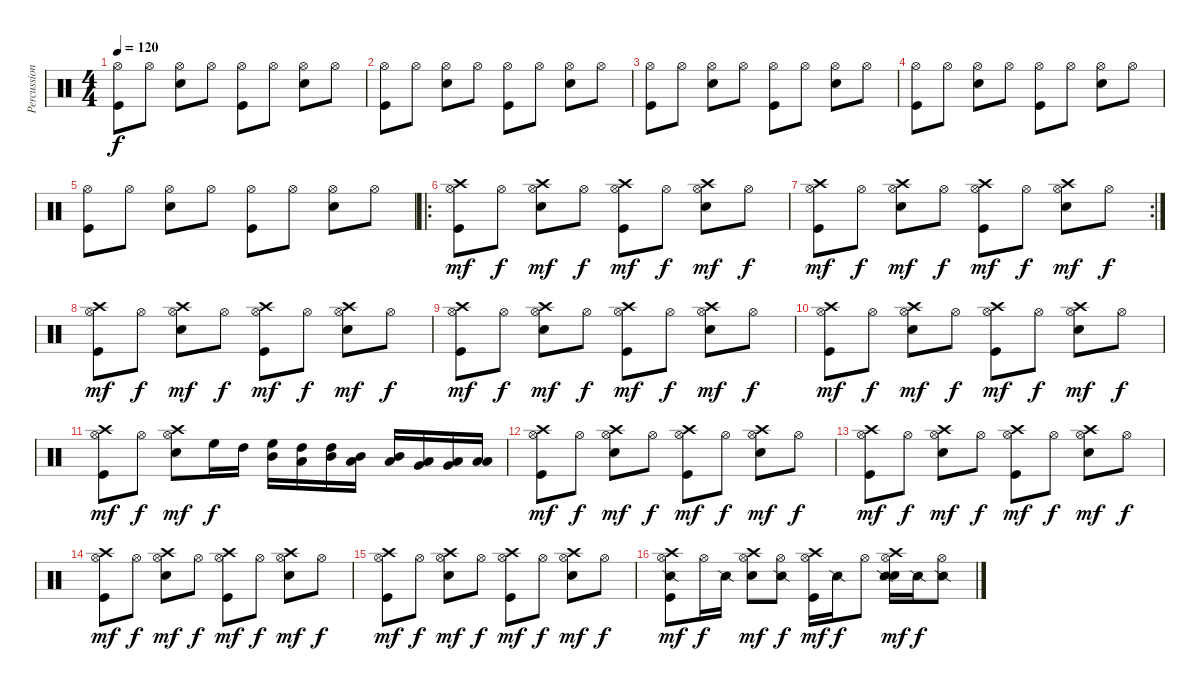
\track ("Percussion" "Percussion") {instrument percussion}
\staff {score}
\articulation defaults
\ts (4 4)
\tempo 120
\clef neutral
\ks c
("Hi-Hat (open)" "Kick (hit)").8{dy f} "Hi-Hat (open)".8 ("Hi-Hat (open)" "Snare (hit) 2").8 "Hi-Hat (open)".8 ("Hi-Hat (open)" "Kick (hit)").8 "Hi-Hat (open)".8 ("Hi-Hat (open)" "Snare (hit) 2").8 "Hi-Hat (open)".8 |
("Hi-Hat (open)" "Kick (hit)").8 "Hi-Hat (open)".8 ("Hi-Hat (open)" "Snare (hit) 2").8 "Hi-Hat (open)".8 ("Hi-Hat (open)" "Kick (hit)").8 "Hi-Hat (open)".8 ("Hi-Hat (open)" "Snare (hit) 2").8 "Hi-Hat (open)".8 |
("Hi-Hat (open)" "Kick (hit)").8 "Hi-Hat (open)".8 ("Hi-Hat (open)" "Snare (hit) 2").8 "Hi-Hat (open)".8 ("Hi-Hat (open)" "Kick (hit)").8 "Hi-Hat (open)".8 ("Hi-Hat (open)" "Snare (hit) 2").8 "Hi-Hat (open)".8 |
("Hi-Hat (open)" "Kick (hit)").8 "Hi-Hat (open)".8 ("Hi-Hat (open)" "Snare (hit) 2").8 "Hi-Hat (open)".8 ("Hi-Hat (open)" "Kick (hit)").8 "Hi-Hat (open)".8 ("Hi-Hat (open)" "Snare (hit) 2").8 "Hi-Hat (open)".8 |
("Hi-Hat (open)" "Kick (hit)").8 "Hi-Hat (open)".8 ("Hi-Hat (open)" "Snare (hit) 2").8 "Hi-Hat (open)".8 ("Hi-Hat (open)" "Kick (hit)").8 "Hi-Hat (open)".8 ("Hi-Hat (open)" "Snare (hit) 2").8 "Hi-Hat (open)".8 |
\ro
("Hi-Hat (open)" "Kick (hit)" "Crash high (hit)").8{dy mf} "Hi-Hat (open)".8{dy f} ("Hi-Hat (open)" "Snare (hit) 2" "Crash high (hit)").8{dy mf} "Hi-Hat (open)".8{dy f} ("Hi-Hat (open)" "Kick (hit)" "Crash high (hit)").8{dy mf} "Hi-Hat (open)".8{dy f} ("Hi-Hat (open)" "Snare (hit) 2" "Crash high (hit)").8{dy mf} "Hi-Hat (open)".8{dy f} |
\rc 2
("Hi-Hat (open)" "Kick (hit)" "Crash high (hit)").8{dy mf} "Hi-Hat (open)".8{dy f} ("Hi-Hat (open)" "Snare (hit) 2" "Crash high (hit)").8{dy mf} "Hi-Hat (open)".8{dy f} ("Hi-Hat (open)" "Kick (hit)" "Crash high (hit)").8{dy mf} "Hi-Hat (open)".8{dy f} ("Hi-Hat (open)" "Snare (hit) 2" "Crash high (hit)").8{dy mf} "Hi-Hat (open)".8{dy f} |
("Hi-Hat (open)" "Kick (hit)" "Crash high (hit)").8{dy mf} "Hi-Hat (open)".8{dy f} ("Hi-Hat (open)" "Snare (hit) 2" "Crash high (hit)").8{dy mf} "Hi-Hat (open)".8{dy f} ("Hi-Hat (open)" "Kick (hit)" "Crash high (hit)").8{dy mf} "Hi-Hat (open)".8{dy f} ("Hi-Hat (open)" "Snare (hit) 2" "Crash high (hit)").8{dy mf} "Hi-Hat (open)".8{dy f} |
("Hi-Hat (open)" "Kick (hit)" "Crash high (hit)").8{dy mf} "Hi-Hat (open)".8{dy f} ("Hi-Hat (open)" "Snare (hit) 2" "Crash high (hit)").8{dy mf} "Hi-Hat (open)".8{dy f} ("Hi-Hat (open)" "Kick (hit)" "Crash high (hit)").8{dy mf} "Hi-Hat (open)".8{dy f} ("Hi-Hat (open)" "Snare (hit) 2" "Crash high (hit)").8{dy mf} "Hi-Hat (open)".8{dy f} |
("Hi-Hat (open)" "Kick (hit)" "Crash high (hit)").8{dy mf} "Hi-Hat (open)".8{dy f} ("Hi-Hat (open)" "Snare (hit) 2" "Crash high (hit)").8{dy mf} "Hi-Hat (open)".8{dy f} ("Hi-Hat (open)" "Kick (hit)" "Crash high (hit)").8{dy mf} "Hi-Hat (open)".8{dy f} ("Hi-Hat (open)" "Snare (hit) 2" "Crash high (hit)").8{dy mf} "Hi-Hat (open)".8{dy f} |
("Hi-Hat (open)" "Kick (hit)" "Crash high (hit)").8{dy mf} "Hi-Hat (open)".8{dy f} ("Hi-Hat (open)" "Snare (hit) 2" "Crash high (hit)").8{dy mf} "High Floor Tom (hit)".16{dy f} "High Tom (hit)".16 ("High Floor Tom (hit)" "Mid Tom (hit)").16 ("High Tom (hit)" "Low Tom (hit)").16 ("Mid Tom (hit)" "High Tom (hit)").16 ("Low Tom (hit)" "Mid Tom (hit)").16 ("Mid Tom (hit)" "Low Tom (hit)").16 ("Low Tom (hit)" "Very Low Tom (hit)").16 ("Very Low Tom (hit)" "Low Floor Tom (hit)").16 ("Low Floor Tom (hit)" "Low Floor Tom (hit)").16 |
("Hi-Hat (open)" "Kick (hit)" "Crash high (hit)").8{dy mf} "Hi-Hat (open)".8{dy f} ("Hi-Hat (open)" "Snare (hit) 2" "Crash high (hit)").8{dy mf} "Hi-Hat (open)".8{dy f} ("Hi-Hat (open)" "Kick (hit)" "Crash high (hit)").8{dy mf} "Hi-Hat (open)".8{dy f} ("Hi-Hat (open)" "Snare (hit) 2" "Crash high (hit)").8{dy mf} "Hi-Hat (open)".8{dy f} |
("Hi-Hat (open)" "Kick (hit)" "Crash high (hit)").8{dy mf} "Hi-Hat (open)".8{dy f} ("Hi-Hat (open)" "Snare (hit) 2" "Crash high (hit)").8{dy mf} "Hi-Hat (open)".8{dy f} ("Hi-Hat (open)" "Kick (hit)" "Crash high (hit)").8{dy mf} "Hi-Hat (open)".8{dy f} ("Hi-Hat (open)" "Snare (hit) 2" "Crash high (hit)").8{dy mf} "Hi-Hat (open)".8{dy f} |
("Hi-Hat (open)" "Kick (hit)" "Crash high (hit)").8{dy mf} "Hi-Hat (open)".8{dy f} ("Hi-Hat (open)" "Snare (hit) 2" "Crash high (hit)").8{dy mf} "Hi-Hat (open)".8{dy f} ("Hi-Hat (open)" "Kick (hit)" "Crash high (hit)").8{dy mf} "Hi-Hat (open)".8{dy f} ("Hi-Hat (open)" "Snare (hit) 2" "Crash high (hit)").8{dy mf} "Hi-Hat (open)".8{dy f} |
("Hi-Hat (open)" "Kick (hit)" "Crash high (hit)").8{dy mf} "Hi-Hat (open)".8{dy f} ("Hi-Hat (open)" "Snare (hit) 2" "Crash high (hit)").8{dy mf} "Hi-Hat (open)".8{dy f} ("Hi-Hat (open)" "Kick (hit)" "Crash high (hit)").8{dy mf} "Hi-Hat (open)".8{dy f} ("Hi-Hat (open)" "Snare (hit) 2" "Crash high (hit)").8{dy mf} "Hi-Hat (open)".8{dy f} |
("Hi-Hat (open)" "Kick (hit)" "Crash high (hit)" "Snare (side stick) 2").8{dy mf} "Hi-Hat (open)".16{dy f} "Snare (side stick) 2".16 ("Hi-Hat (open)" "Snare (hit) 2" "Crash high (hit)").8{dy mf} ("Hi-Hat (open)" "Snare (side stick) 2").8{dy f} ("Hi-Hat (open)" "Kick (hit)" "Crash high (hit)").16{dy mf} "Snare (side stick) 2".16{dy f} "Hi-Hat (open)".8 ("Hi-Hat (open)" "Snare (hit) 2" "Crash high (hit)" "Snare (side stick) 2").16{dy mf} "Snare (side stick) 2".16{dy f} ("Hi-Hat (open)" "Snare (side stick) 2").8
